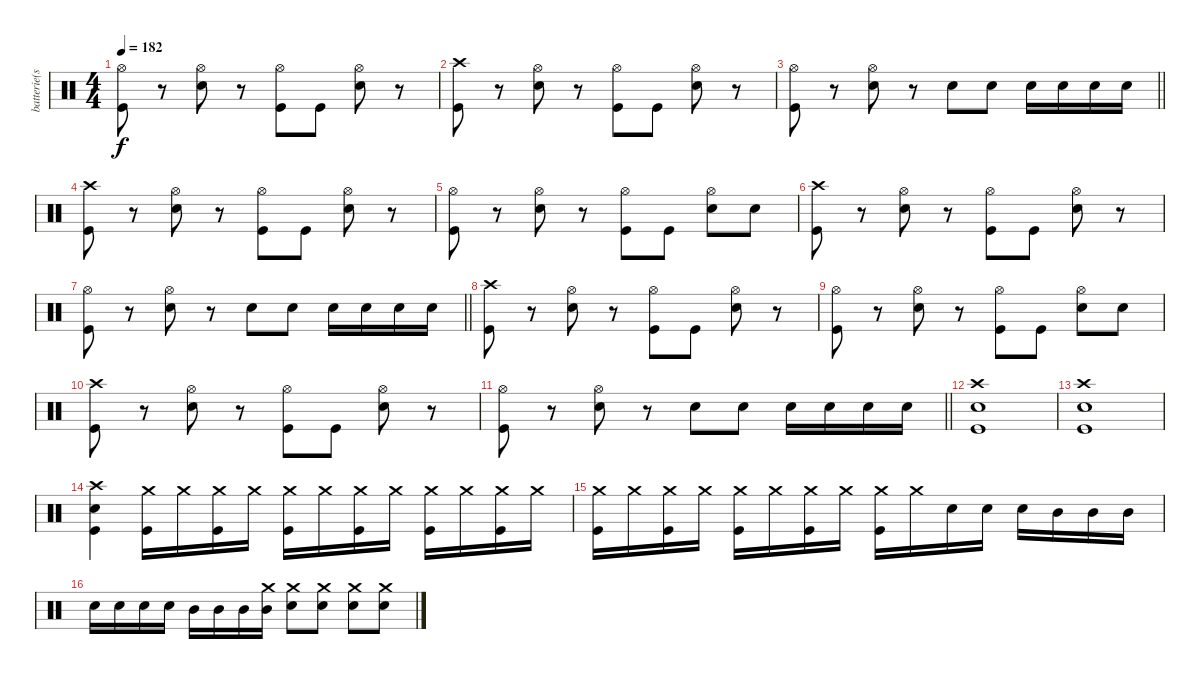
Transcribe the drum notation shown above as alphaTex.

\track ("batterie(scott)" "batterie(s") {instrument percussion}
\staff {score}
\articulation defaults
\ts (4 4)
\tempo 182
\clef neutral
\ks c
("Hi-Hat (open)" "Kick (hit)").8{dy f} r.8 ("Hi-Hat (open)" "Snare (hit) 2").8 r.8 ("Hi-Hat (open)" "Kick (hit)").8 "Kick (hit)".8 ("Hi-Hat (open)" "Snare (hit) 2").8 r.8 |
("Crash high (hit)" "Kick (hit)").8 r.8 ("Hi-Hat (open)" "Snare (hit) 2").8 r.8 ("Hi-Hat (open)" "Kick (hit)").8 "Kick (hit)".8 ("Hi-Hat (open)" "Snare (hit) 2").8 r.8 |
\barLineRight lightlight
("Hi-Hat (open)" "Kick (hit)").8 r.8 ("Hi-Hat (open)" "Snare (hit) 2").8 r.8 "Snare (hit) 2".8 "Snare (hit) 2".8 "Snare (hit) 2".16 "Snare (hit) 2".16 "Snare (hit) 2".16 "Snare (hit) 2".16 |
("Crash high (hit)" "Kick (hit)").8 r.8 ("Hi-Hat (open)" "Snare (hit) 2").8 r.8 ("Hi-Hat (open)" "Kick (hit)").8 "Kick (hit)".8 ("Hi-Hat (open)" "Snare (hit) 2").8 r.8 |
("Hi-Hat (open)" "Kick (hit)").8 r.8 ("Hi-Hat (open)" "Snare (hit) 2").8 r.8 ("Hi-Hat (open)" "Kick (hit)").8 "Kick (hit)".8 ("Hi-Hat (open)" "Snare (hit) 2").8 "Snare (hit) 2".8 |
("Crash high (hit)" "Kick (hit)").8 r.8 ("Hi-Hat (open)" "Snare (hit) 2").8 r.8 ("Hi-Hat (open)" "Kick (hit)").8 "Kick (hit)".8 ("Hi-Hat (open)" "Snare (hit) 2").8 r.8 |
\barLineRight lightlight
("Hi-Hat (open)" "Kick (hit)").8 r.8 ("Hi-Hat (open)" "Snare (hit) 2").8 r.8 "Snare (hit) 2".8 "Snare (hit) 2".8 "Snare (hit) 2".16 "Snare (hit) 2".16 "Snare (hit) 2".16 "Snare (hit) 2".16 |
("Crash high (hit)" "Kick (hit)").8 r.8 ("Hi-Hat (open)" "Snare (hit) 2").8 r.8 ("Hi-Hat (open)" "Kick (hit)").8 "Kick (hit)".8 ("Hi-Hat (open)" "Snare (hit) 2").8 r.8 |
("Hi-Hat (open)" "Kick (hit)").8 r.8 ("Hi-Hat (open)" "Snare (hit) 2").8 r.8 ("Hi-Hat (open)" "Kick (hit)").8 "Kick (hit)".8 ("Hi-Hat (open)" "Snare (hit) 2").8 "Snare (hit) 2".8 |
("Crash high (hit)" "Kick (hit)").8 r.8 ("Hi-Hat (open)" "Snare (hit) 2").8 r.8 ("Hi-Hat (open)" "Kick (hit)").8 "Kick (hit)".8 ("Hi-Hat (open)" "Snare (hit) 2").8 r.8 |
\barLineRight lightlight
("Hi-Hat (open)" "Kick (hit)").8 r.8 ("Hi-Hat (open)" "Snare (hit) 2").8 r.8 "Snare (hit) 2".8 "Snare (hit) 2".8 "Snare (hit) 2".16 "Snare (hit) 2".16 "Snare (hit) 2".16 "Snare (hit) 2".16 |
("Crash high (hit)" "Snare (hit) 2" "Kick (hit)").1 |
("Crash high (hit)" "Snare (hit) 2" "Kick (hit)").1 |
("Crash high (hit)" "Snare (hit) 2" "Kick (hit)").4 ("Crash medium (hit)" "Kick (hit)").16 "Crash medium (hit)".16 ("Crash medium (hit)" "Kick (hit)").16 "Crash medium (hit)".16 ("Crash medium (hit)" "Kick (hit)").16 "Crash medium (hit)".16 ("Crash medium (hit)" "Kick (hit)").16 "Crash medium (hit)".16 ("Crash medium (hit)" "Kick (hit)").16 "Crash medium (hit)".16 ("Crash medium (hit)" "Kick (hit)").16 "Crash medium (hit)".16 |
("Crash medium (hit)" "Kick (hit)").16 "Crash medium (hit)".16 ("Crash medium (hit)" "Kick (hit)").16 "Crash medium (hit)".16 ("Crash medium (hit)" "Kick (hit)").16 "Crash medium (hit)".16 ("Crash medium (hit)" "Kick (hit)").16 "Crash medium (hit)".16 ("Crash medium (hit)" "Kick (hit)").16 "Crash medium (hit)".16 "Snare (hit) 2".16 "Snare (hit) 2".16 "Snare (hit) 2".16 "Mid Tom (hit)".16 "Mid Tom (hit)".16 "Mid Tom (hit)".16 |
"Snare (hit) 2".16 "Snare (hit) 2".16 "Snare (hit) 2".16 "Snare (hit) 2".16 "Mid Tom (hit)".16 "Mid Tom (hit)".16 "Mid Tom (hit)".16 ("Crash medium (hit)" "Mid Tom (hit)").16 ("Crash medium (hit)" "Snare (hit) 2").8 ("Crash medium (hit)" "Snare (hit) 2").8 ("Crash medium (hit)" "Snare (hit) 2").8 ("Crash medium (hit)" "Snare (hit) 2").8
